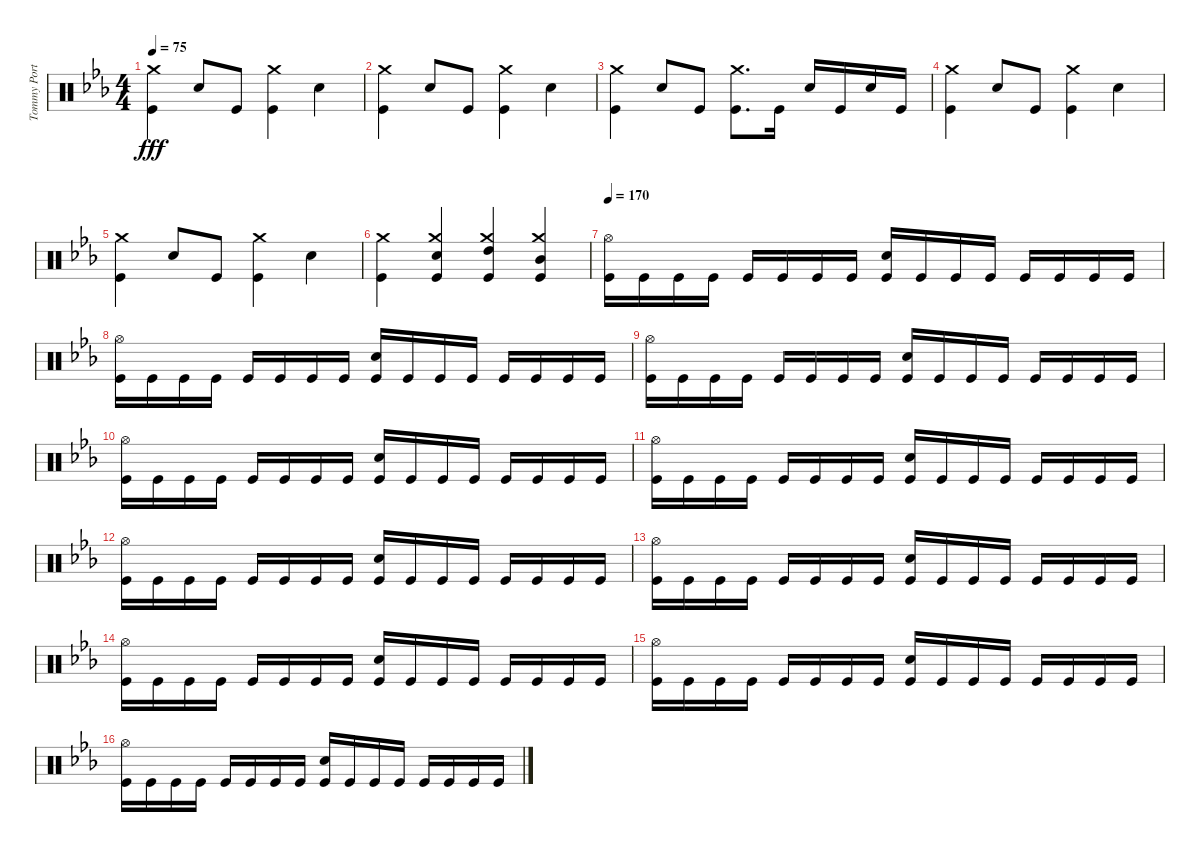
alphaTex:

\track ("Tommy Portimo (Percussion)" "Tommy Port") {instrument percussion}
\staff {score}
\articulation defaults
\ts (4 4)
\tempo 75
\clef neutral
\ks eb
("Kick (hit)" "Crash medium (hit)").4{dy fff} "Electric Snare (hit)".8 "Kick (hit)".8 ("Kick (hit)" "Crash medium (hit)").4 "Electric Snare (hit)".4 |
("Kick (hit)" "Crash medium (hit)").4 "Electric Snare (hit)".8 "Kick (hit)".8 ("Kick (hit)" "Crash medium (hit)").4 "Electric Snare (hit)".4 |
("Kick (hit)" "Crash medium (hit)").4 "Electric Snare (hit)".8 "Kick (hit)".8 ("Crash medium (hit)" "Kick (hit)").8{d} "Kick (hit)".16 "Electric Snare (hit)".16 "Kick (hit)".16 "Electric Snare (hit)".16 "Kick (hit)".16 |
("Kick (hit)" "Crash medium (hit)").4 "Electric Snare (hit)".8 "Kick (hit)".8 ("Kick (hit)" "Crash medium (hit)").4 "Electric Snare (hit)".4 |
("Kick (hit)" "Crash medium (hit)").4 "Electric Snare (hit)".8 "Kick (hit)".8 ("Kick (hit)" "Crash medium (hit)").4 "Electric Snare (hit)".4 |
("Kick (hit)" "Crash medium (hit)").4 ("Kick (hit)" "Crash medium (hit)" "Electric Snare (hit)").4 ("Kick (hit)" "Crash medium (hit)" "High Tom (hit)").4 ("Kick (hit)" "Crash medium (hit)" "Mid Tom (hit)").4 |
\tempo 170
("Hi-Hat (open)" "Kick (hit)").16 "Kick (hit)".16 "Kick (hit)".16 "Kick (hit)".16 "Kick (hit)".16 "Kick (hit)".16 "Kick (hit)".16 "Kick (hit)".16 ("Electric Snare (hit)" "Kick (hit)").16 "Kick (hit)".16 "Kick (hit)".16 "Kick (hit)".16 "Kick (hit)".16 "Kick (hit)".16 "Kick (hit)".16 "Kick (hit)".16 |
("Hi-Hat (open)" "Kick (hit)").16 "Kick (hit)".16 "Kick (hit)".16 "Kick (hit)".16 "Kick (hit)".16 "Kick (hit)".16 "Kick (hit)".16 "Kick (hit)".16 ("Electric Snare (hit)" "Kick (hit)").16 "Kick (hit)".16 "Kick (hit)".16 "Kick (hit)".16 "Kick (hit)".16 "Kick (hit)".16 "Kick (hit)".16 "Kick (hit)".16 |
("Hi-Hat (open)" "Kick (hit)").16 "Kick (hit)".16 "Kick (hit)".16 "Kick (hit)".16 "Kick (hit)".16 "Kick (hit)".16 "Kick (hit)".16 "Kick (hit)".16 ("Electric Snare (hit)" "Kick (hit)").16 "Kick (hit)".16 "Kick (hit)".16 "Kick (hit)".16 "Kick (hit)".16 "Kick (hit)".16 "Kick (hit)".16 "Kick (hit)".16 |
("Hi-Hat (open)" "Kick (hit)").16 "Kick (hit)".16 "Kick (hit)".16 "Kick (hit)".16 "Kick (hit)".16 "Kick (hit)".16 "Kick (hit)".16 "Kick (hit)".16 ("Electric Snare (hit)" "Kick (hit)").16 "Kick (hit)".16 "Kick (hit)".16 "Kick (hit)".16 "Kick (hit)".16 "Kick (hit)".16 "Kick (hit)".16 "Kick (hit)".16 |
("Hi-Hat (open)" "Kick (hit)").16 "Kick (hit)".16 "Kick (hit)".16 "Kick (hit)".16 "Kick (hit)".16 "Kick (hit)".16 "Kick (hit)".16 "Kick (hit)".16 ("Electric Snare (hit)" "Kick (hit)").16 "Kick (hit)".16 "Kick (hit)".16 "Kick (hit)".16 "Kick (hit)".16 "Kick (hit)".16 "Kick (hit)".16 "Kick (hit)".16 |
("Hi-Hat (open)" "Kick (hit)").16 "Kick (hit)".16 "Kick (hit)".16 "Kick (hit)".16 "Kick (hit)".16 "Kick (hit)".16 "Kick (hit)".16 "Kick (hit)".16 ("Electric Snare (hit)" "Kick (hit)").16 "Kick (hit)".16 "Kick (hit)".16 "Kick (hit)".16 "Kick (hit)".16 "Kick (hit)".16 "Kick (hit)".16 "Kick (hit)".16 |
("Hi-Hat (open)" "Kick (hit)").16 "Kick (hit)".16 "Kick (hit)".16 "Kick (hit)".16 "Kick (hit)".16 "Kick (hit)".16 "Kick (hit)".16 "Kick (hit)".16 ("Electric Snare (hit)" "Kick (hit)").16 "Kick (hit)".16 "Kick (hit)".16 "Kick (hit)".16 "Kick (hit)".16 "Kick (hit)".16 "Kick (hit)".16 "Kick (hit)".16 |
("Hi-Hat (open)" "Kick (hit)").16 "Kick (hit)".16 "Kick (hit)".16 "Kick (hit)".16 "Kick (hit)".16 "Kick (hit)".16 "Kick (hit)".16 "Kick (hit)".16 ("Electric Snare (hit)" "Kick (hit)").16 "Kick (hit)".16 "Kick (hit)".16 "Kick (hit)".16 "Kick (hit)".16 "Kick (hit)".16 "Kick (hit)".16 "Kick (hit)".16 |
("Hi-Hat (open)" "Kick (hit)").16 "Kick (hit)".16 "Kick (hit)".16 "Kick (hit)".16 "Kick (hit)".16 "Kick (hit)".16 "Kick (hit)".16 "Kick (hit)".16 ("Electric Snare (hit)" "Kick (hit)").16 "Kick (hit)".16 "Kick (hit)".16 "Kick (hit)".16 "Kick (hit)".16 "Kick (hit)".16 "Kick (hit)".16 "Kick (hit)".16 |
("Hi-Hat (open)" "Kick (hit)").16 "Kick (hit)".16 "Kick (hit)".16 "Kick (hit)".16 "Kick (hit)".16 "Kick (hit)".16 "Kick (hit)".16 "Kick (hit)".16 ("Electric Snare (hit)" "Kick (hit)").16 "Kick (hit)".16 "Kick (hit)".16 "Kick (hit)".16 "Kick (hit)".16 "Kick (hit)".16 "Kick (hit)".16 "Kick (hit)".16
